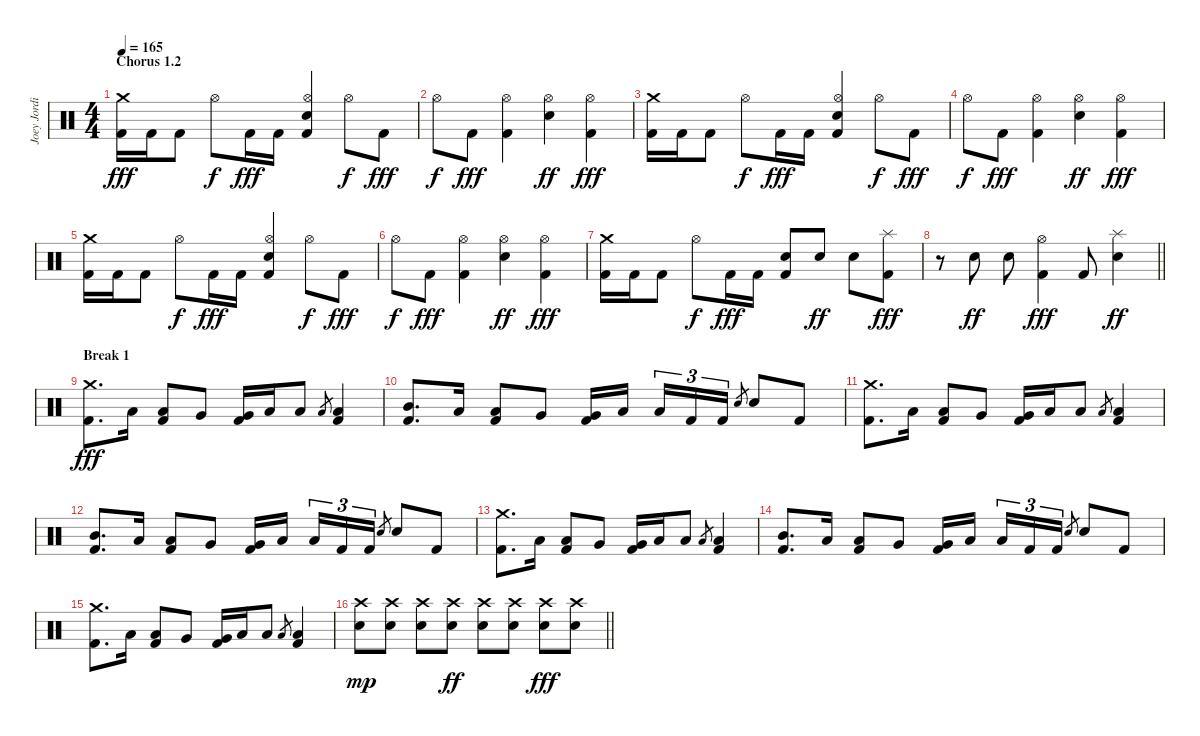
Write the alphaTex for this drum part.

\track ("Joey Jordison" "Joey Jordi") {instrument percussion}
\staff {score}
\articulation defaults
\ts (4 4)
\section ("" "Chorus 1.2")
\tempo 165
\clef neutral
\ks c
("Crash medium (hit)" "Kick (hit) 2").16{dy fff} "Kick (hit) 2".16 "Kick (hit) 2".8 "Hi-Hat (open)".8{dy f} "Kick (hit) 2".16{dy fff} "Kick (hit) 2".16 ("Hi-Hat (open)" "Electric Snare (hit)" "Kick (hit) 2").4 "Hi-Hat (open)".8{dy f} "Kick (hit) 2".8{dy fff} |
"Hi-Hat (open)".8{dy f} "Kick (hit) 2".8{dy fff} ("Hi-Hat (open)" "Kick (hit) 2").4 ("Hi-Hat (open)" "Electric Snare (hit)").4{dy ff} ("Hi-Hat (open)" "Kick (hit) 2").4{dy fff} |
("Crash medium (hit)" "Kick (hit) 2").16 "Kick (hit) 2".16 "Kick (hit) 2".8 "Hi-Hat (open)".8{dy f} "Kick (hit) 2".16{dy fff} "Kick (hit) 2".16 ("Hi-Hat (open)" "Electric Snare (hit)" "Kick (hit) 2").4 "Hi-Hat (open)".8{dy f} "Kick (hit) 2".8{dy fff} |
"Hi-Hat (open)".8{dy f} "Kick (hit) 2".8{dy fff} ("Hi-Hat (open)" "Kick (hit) 2").4 ("Hi-Hat (open)" "Electric Snare (hit)").4{dy ff} ("Hi-Hat (open)" "Kick (hit) 2").4{dy fff} |
("Crash medium (hit)" "Kick (hit) 2").16 "Kick (hit) 2".16 "Kick (hit) 2".8 "Hi-Hat (open)".8{dy f} "Kick (hit) 2".16{dy fff} "Kick (hit) 2".16 ("Hi-Hat (open)" "Electric Snare (hit)" "Kick (hit) 2").4 "Hi-Hat (open)".8{dy f} "Kick (hit) 2".8{dy fff} |
"Hi-Hat (open)".8{dy f} "Kick (hit) 2".8{dy fff} ("Hi-Hat (open)" "Kick (hit) 2").4 ("Hi-Hat (open)" "Electric Snare (hit)").4{dy ff} ("Hi-Hat (open)" "Kick (hit) 2").4{dy fff} |
("Crash medium (hit)" "Kick (hit) 2").16 "Kick (hit) 2".16 "Kick (hit) 2".8 "Hi-Hat (open)".8{dy f} "Kick (hit) 2".16{dy fff} "Kick (hit) 2".16 ("Electric Snare (hit)" "Kick (hit) 2").8 "Electric Snare (hit)".8{dy ff} "Electric Snare (hit)".8 ("Splash (hit)" "Kick (hit) 2").8{dy fff} |
\barLineRight lightlight
r.8 "Electric Snare (hit)".8{dy ff} "Electric Snare (hit)".8 ("Hi-Hat (open)" "Kick (hit) 2").4{dy fff} "Kick (hit) 2".8 ("Splash (hit)" "Electric Snare (hit)").4{dy ff} |
\section ("" "Break 1")
("Crash medium (hit)" "Kick (hit) 2").8{d dy fff} "Low Tom (hit)".16 ("Low Tom (hit)" "Kick (hit) 2").8 "Very Low Tom (hit)".8 ("Very Low Tom (hit)" "Kick (hit) 2").16 "Low Floor Tom (hit)".16 "Low Floor Tom (hit)".8 "Low Floor Tom (hit)".8{gr} ("Low Floor Tom (hit)" "Kick (hit) 2").4 |
("Mid Tom (hit)" "Kick (hit) 2").8{d} "Low Tom (hit)".16 ("Low Tom (hit)" "Kick (hit) 2").8 "Very Low Tom (hit)".8 ("Very Low Tom (hit)" "Kick (hit) 2").16 "Low Floor Tom (hit)".16{beam splitsecondary} "Low Floor Tom (hit)".16{tu (3 2)} "Kick (hit) 2".16{tu (3 2)} "Kick (hit) 2".16{tu (3 2)} "Electric Snare (hit)".8{gr} "Electric Snare (hit)".8 "Kick (hit) 2".8 |
("Crash medium (hit)" "Kick (hit) 2").8{d} "Low Tom (hit)".16 ("Low Tom (hit)" "Kick (hit) 2").8 "Very Low Tom (hit)".8 ("Very Low Tom (hit)" "Kick (hit) 2").16 "Low Floor Tom (hit)".16 "Low Floor Tom (hit)".8 "Low Floor Tom (hit)".8{gr} ("Low Floor Tom (hit)" "Kick (hit) 2").4 |
("Mid Tom (hit)" "Kick (hit) 2").8{d} "Low Tom (hit)".16 ("Low Tom (hit)" "Kick (hit) 2").8 "Very Low Tom (hit)".8 ("Very Low Tom (hit)" "Kick (hit) 2").16 "Low Floor Tom (hit)".16{beam splitsecondary} "Low Floor Tom (hit)".16{tu (3 2)} "Kick (hit) 2".16{tu (3 2)} "Kick (hit) 2".16{tu (3 2)} "Electric Snare (hit)".8{gr} "Electric Snare (hit)".8 "Kick (hit) 2".8 |
("Crash medium (hit)" "Kick (hit) 2").8{d} "Low Tom (hit)".16 ("Low Tom (hit)" "Kick (hit) 2").8 "Very Low Tom (hit)".8 ("Very Low Tom (hit)" "Kick (hit) 2").16 "Low Floor Tom (hit)".16 "Low Floor Tom (hit)".8 "Low Floor Tom (hit)".8{gr} ("Low Floor Tom (hit)" "Kick (hit) 2").4 |
("Mid Tom (hit)" "Kick (hit) 2").8{d} "Low Tom (hit)".16 ("Low Tom (hit)" "Kick (hit) 2").8 "Very Low Tom (hit)".8 ("Very Low Tom (hit)" "Kick (hit) 2").16 "Low Floor Tom (hit)".16{beam splitsecondary} "Low Floor Tom (hit)".16{tu (3 2)} "Kick (hit) 2".16{tu (3 2)} "Kick (hit) 2".16{tu (3 2)} "Electric Snare (hit)".8{gr} "Electric Snare (hit)".8 "Kick (hit) 2".8 |
("Crash medium (hit)" "Kick (hit) 2").8{d} "Low Tom (hit)".16 ("Low Tom (hit)" "Kick (hit) 2").8 "Very Low Tom (hit)".8 ("Very Low Tom (hit)" "Kick (hit) 2").16 "Low Floor Tom (hit)".16 "Low Floor Tom (hit)".8 "Low Floor Tom (hit)".8{gr} ("Low Floor Tom (hit)" "Kick (hit) 2").4 |
\barLineRight lightlight
("Crash high (hit)" "Electric Snare (hit)").8{dy mp} ("Crash high (hit)" "Electric Snare (hit)").8 ("Crash high (hit)" "Electric Snare (hit)").8 ("Crash high (hit)" "Electric Snare (hit)").8{dy ff} ("Crash high (hit)" "Electric Snare (hit)").8 ("Crash high (hit)" "Electric Snare (hit)").8 ("Crash high (hit)" "Electric Snare (hit)").8{dy fff} ("Crash high (hit)" "Electric Snare (hit)").8
